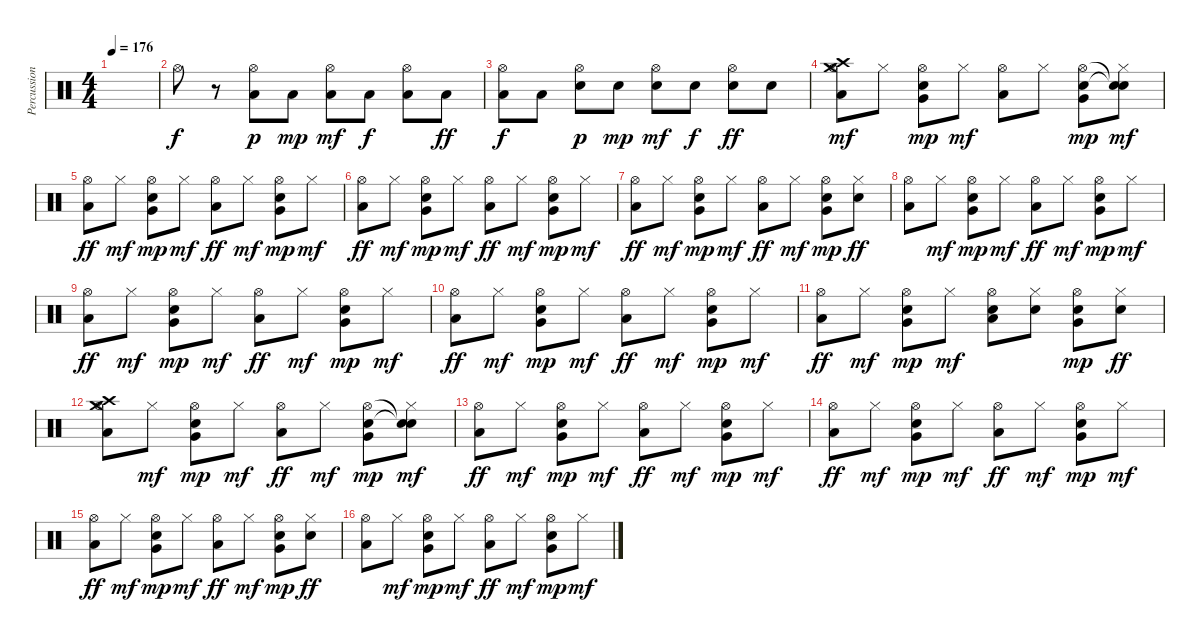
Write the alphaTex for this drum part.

\track ("Percussions" "Percussion") {instrument percussion}
\staff {score}
\articulation defaults
\ts (4 4)
\tempo 176
\clef neutral
\ks c
|
"Hi-Hat (open)".8 r.8 ("Hi-Hat (open)" "Low Floor Tom (hit)").8{dy p} "Low Floor Tom (hit)".8{dy mp} ("Hi-Hat (open)" "Low Floor Tom (hit)").8{dy mf} "Low Floor Tom (hit)".8{dy f} ("Hi-Hat (open)" "Low Floor Tom (hit)").8 "Low Floor Tom (hit)".8{dy ff} |
("Hi-Hat (open)" "Low Floor Tom (hit)").8{dy f} "Low Floor Tom (hit)".8 ("Hi-Hat (open)" "Electric Snare (hit)").8{dy p} "Electric Snare (hit)".8{dy mp} ("Hi-Hat (open)" "Electric Snare (hit)").8{dy mf} "Electric Snare (hit)".8{dy f} ("Hi-Hat (open)" "Electric Snare (hit)").8{dy ff} "Electric Snare (hit)".8 |
("Crash high (hit)" "Crash medium (hit)" "Hi-Hat (open)" "Low Floor Tom (hit)").8{dy mf} "Hi-Hat (closed)".8 ("Hi-Hat (open)" "Electric Snare (hit)" "Very Low Tom (hit)").8{dy mp} "Hi-Hat (closed)".8{dy mf} ("Hi-Hat (open)" "Low Floor Tom (hit)").8 "Hi-Hat (closed)".8 ("Hi-Hat (open)" "Electric Snare (hit)" "Very Low Tom (hit)").8{dy mp} ("Snare (hit)"{t} "Snare (hit)"{t} "Hi-Hat (closed)").8{dy mf} |
("Hi-Hat (open)" "Low Floor Tom (hit)").8{dy ff} "Hi-Hat (closed)".8{dy mf} ("Hi-Hat (open)" "Electric Snare (hit)" "Very Low Tom (hit)").8{dy mp} "Hi-Hat (closed)".8{dy mf} ("Hi-Hat (open)" "Low Floor Tom (hit)").8{dy ff} "Hi-Hat (closed)".8{dy mf} ("Hi-Hat (open)" "Electric Snare (hit)" "Very Low Tom (hit)").8{dy mp} "Hi-Hat (closed)".8{dy mf} |
("Hi-Hat (open)" "Low Floor Tom (hit)").8{dy ff} "Hi-Hat (closed)".8{dy mf} ("Hi-Hat (open)" "Electric Snare (hit)" "Very Low Tom (hit)").8{dy mp} "Hi-Hat (closed)".8{dy mf} ("Hi-Hat (open)" "Low Floor Tom (hit)").8{dy ff} "Hi-Hat (closed)".8{dy mf} ("Hi-Hat (open)" "Electric Snare (hit)" "Very Low Tom (hit)").8{dy mp} "Hi-Hat (closed)".8{dy mf} |
("Hi-Hat (open)" "Low Floor Tom (hit)").8{dy ff} "Hi-Hat (closed)".8{dy mf} ("Hi-Hat (open)" "Electric Snare (hit)" "Very Low Tom (hit)").8{dy mp} "Hi-Hat (closed)".8{dy mf} ("Hi-Hat (open)" "Low Floor Tom (hit)").8{dy ff} "Hi-Hat (closed)".8{dy mf} ("Hi-Hat (open)" "Very Low Tom (hit)" "Electric Snare (hit)").8{dy mp} ("Hi-Hat (closed)" "Electric Snare (hit)").8{dy ff} |
("Hi-Hat (open)" "Low Floor Tom (hit)").8 "Hi-Hat (closed)".8{dy mf} ("Hi-Hat (open)" "Electric Snare (hit)" "Very Low Tom (hit)").8{dy mp} "Hi-Hat (closed)".8{dy mf} ("Hi-Hat (open)" "Low Floor Tom (hit)").8{dy ff} "Hi-Hat (closed)".8{dy mf} ("Hi-Hat (open)" "Electric Snare (hit)" "Very Low Tom (hit)").8{dy mp} "Hi-Hat (closed)".8{dy mf} |
("Hi-Hat (open)" "Low Floor Tom (hit)").8{dy ff} "Hi-Hat (closed)".8{dy mf} ("Hi-Hat (open)" "Electric Snare (hit)" "Very Low Tom (hit)").8{dy mp} "Hi-Hat (closed)".8{dy mf} ("Hi-Hat (open)" "Low Floor Tom (hit)").8{dy ff} "Hi-Hat (closed)".8{dy mf} ("Hi-Hat (open)" "Electric Snare (hit)" "Very Low Tom (hit)").8{dy mp} "Hi-Hat (closed)".8{dy mf} |
("Hi-Hat (open)" "Low Floor Tom (hit)").8{dy ff} "Hi-Hat (closed)".8{dy mf} ("Hi-Hat (open)" "Electric Snare (hit)" "Very Low Tom (hit)").8{dy mp} "Hi-Hat (closed)".8{dy mf} ("Hi-Hat (open)" "Low Floor Tom (hit)").8{dy ff} "Hi-Hat (closed)".8{dy mf} ("Hi-Hat (open)" "Electric Snare (hit)" "Very Low Tom (hit)").8{dy mp} "Hi-Hat (closed)".8{dy mf} |
("Hi-Hat (open)" "Low Floor Tom (hit)").8{dy ff} "Hi-Hat (closed)".8{dy mf} ("Hi-Hat (open)" "Electric Snare (hit)" "Very Low Tom (hit)").8{dy mp} "Hi-Hat (closed)".8{dy mf} ("Hi-Hat (open)" "Low Floor Tom (hit)" "Electric Snare (hit)").8 ("Hi-Hat (closed)" "Electric Snare (hit)").8 ("Hi-Hat (open)" "Very Low Tom (hit)" "Electric Snare (hit)").8{dy mp} ("Hi-Hat (closed)" "Electric Snare (hit)").8{dy ff} |
("Crash high (hit)" "Crash medium (hit)" "Hi-Hat (open)" "Low Floor Tom (hit)").8 "Hi-Hat (closed)".8{dy mf} ("Hi-Hat (open)" "Electric Snare (hit)" "Very Low Tom (hit)").8{dy mp} "Hi-Hat (closed)".8{dy mf} ("Hi-Hat (open)" "Low Floor Tom (hit)").8{dy ff} "Hi-Hat (closed)".8{dy mf} ("Hi-Hat (open)" "Electric Snare (hit)" "Very Low Tom (hit)").8{dy mp} ("Snare (hit)"{t} "Snare (hit)"{t} "Hi-Hat (closed)").8{dy mf} |
("Hi-Hat (open)" "Low Floor Tom (hit)").8{dy ff} "Hi-Hat (closed)".8{dy mf} ("Hi-Hat (open)" "Electric Snare (hit)" "Very Low Tom (hit)").8{dy mp} "Hi-Hat (closed)".8{dy mf} ("Hi-Hat (open)" "Low Floor Tom (hit)").8{dy ff} "Hi-Hat (closed)".8{dy mf} ("Hi-Hat (open)" "Electric Snare (hit)" "Very Low Tom (hit)").8{dy mp} "Hi-Hat (closed)".8{dy mf} |
("Hi-Hat (open)" "Low Floor Tom (hit)").8{dy ff} "Hi-Hat (closed)".8{dy mf} ("Hi-Hat (open)" "Electric Snare (hit)" "Very Low Tom (hit)").8{dy mp} "Hi-Hat (closed)".8{dy mf} ("Hi-Hat (open)" "Low Floor Tom (hit)").8{dy ff} "Hi-Hat (closed)".8{dy mf} ("Hi-Hat (open)" "Electric Snare (hit)" "Very Low Tom (hit)").8{dy mp} "Hi-Hat (closed)".8{dy mf} |
("Hi-Hat (open)" "Low Floor Tom (hit)").8{dy ff} "Hi-Hat (closed)".8{dy mf} ("Hi-Hat (open)" "Electric Snare (hit)" "Very Low Tom (hit)").8{dy mp} "Hi-Hat (closed)".8{dy mf} ("Hi-Hat (open)" "Low Floor Tom (hit)").8{dy ff} "Hi-Hat (closed)".8{dy mf} ("Hi-Hat (open)" "Very Low Tom (hit)" "Electric Snare (hit)").8{dy mp} ("Hi-Hat (closed)" "Electric Snare (hit)").8{dy ff} |
("Hi-Hat (open)" "Low Floor Tom (hit)").8 "Hi-Hat (closed)".8{dy mf} ("Hi-Hat (open)" "Electric Snare (hit)" "Very Low Tom (hit)").8{dy mp} "Hi-Hat (closed)".8{dy mf} ("Hi-Hat (open)" "Low Floor Tom (hit)").8{dy ff} "Hi-Hat (closed)".8{dy mf} ("Hi-Hat (open)" "Electric Snare (hit)" "Very Low Tom (hit)").8{dy mp} "Hi-Hat (closed)".8{dy mf}
